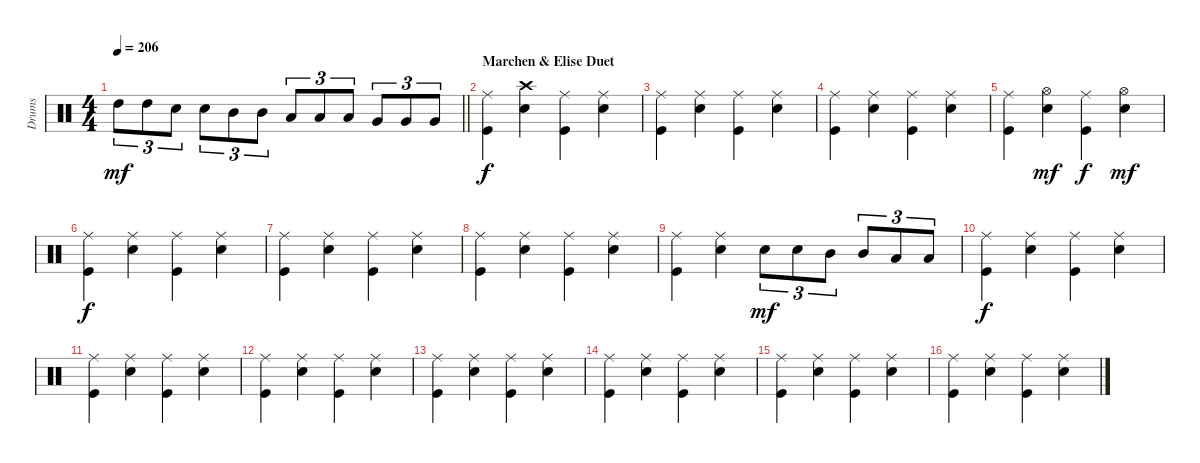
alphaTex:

\track ("Drums" "Drums") {instrument percussion}
\staff {score}
\articulation defaults
\ts (4 4)
\tempo 206
\clef neutral
\barLineRight lightlight
\ks c "High Tom (hit)".8{tu (3 2) dy mf} "High Tom (hit)".8{tu (3 2)} "Electric Snare (hit)".8{tu (3 2)} "Electric Snare (hit)".8{tu (3 2)} "Mid Tom (hit)".8{tu (3 2)} "Mid Tom (hit)".8{tu (3 2)} "Low Tom (hit)".8{tu (3 2)} "Low Tom (hit)".8{tu (3 2)} "Low Tom (hit)".8{tu (3 2)} "Very Low Tom (hit)".8{tu (3 2)} "Very Low Tom (hit)".8{tu (3 2)} "Very Low Tom (hit)".8{tu (3 2)}
|
\section ("" "Marchen & Elise Duet")
("Ride (middle)" "Kick (hit)").4{dy f volume 10} ("Crash high (hit)" "Electric Snare (hit)").4 ("Ride (middle)" "Kick (hit)").4 ("Ride (middle)" "Electric Snare (hit)").4 |
("Ride (middle)" "Kick (hit)").4 ("Ride (middle)" "Electric Snare (hit)").4 ("Ride (middle)" "Kick (hit)").4 ("Ride (middle)" "Electric Snare (hit)").4 |
("Ride (middle)" "Kick (hit)").4 ("Ride (middle)" "Electric Snare (hit)").4 ("Ride (middle)" "Kick (hit)").4 ("Ride (middle)" "Electric Snare (hit)").4 |
("Ride (middle)" "Kick (hit)").4 ("Hi-Hat (open)" "Electric Snare (hit)").4{dy mf} ("Ride (middle)" "Kick (hit)").4{dy f} ("Hi-Hat (open)" "Electric Snare (hit)").4{dy mf} |
("Ride (middle)" "Kick (hit)").4{dy f} ("Ride (middle)" "Electric Snare (hit)").4 ("Ride (middle)" "Kick (hit)").4 ("Ride (middle)" "Electric Snare (hit)").4 |
("Ride (middle)" "Kick (hit)").4 ("Ride (middle)" "Electric Snare (hit)").4 ("Ride (middle)" "Kick (hit)").4 ("Ride (middle)" "Electric Snare (hit)").4 |
("Ride (middle)" "Kick (hit)").4 ("Ride (middle)" "Electric Snare (hit)").4 ("Ride (middle)" "Kick (hit)").4 ("Ride (middle)" "Electric Snare (hit)").4 |
("Ride (middle)" "Kick (hit)").4 ("Ride (middle)" "Electric Snare (hit)").4 "Electric Snare (hit)".8{tu (3 2) dy mf} "Electric Snare (hit)".8{tu (3 2)} "Mid Tom (hit)".8{tu (3 2)} "Mid Tom (hit)".8{tu (3 2)} "Low Tom (hit)".8{tu (3 2)} "Low Tom (hit)".8{tu (3 2)} |
("Ride (middle)" "Kick (hit)").4{dy f} ("Ride (middle)" "Electric Snare (hit)").4 ("Ride (middle)" "Kick (hit)").4 ("Ride (middle)" "Electric Snare (hit)").4 |
("Ride (middle)" "Kick (hit)").4 ("Ride (middle)" "Electric Snare (hit)").4 ("Ride (middle)" "Kick (hit)").4 ("Ride (middle)" "Electric Snare (hit)").4 |
("Ride (middle)" "Kick (hit)").4 ("Ride (middle)" "Electric Snare (hit)").4 ("Ride (middle)" "Kick (hit)").4 ("Ride (middle)" "Electric Snare (hit)").4 |
("Ride (middle)" "Kick (hit)").4 ("Ride (middle)" "Electric Snare (hit)").4 ("Ride (middle)" "Kick (hit)").4 ("Ride (middle)" "Electric Snare (hit)").4 |
("Ride (middle)" "Kick (hit)").4 ("Ride (middle)" "Electric Snare (hit)").4 ("Ride (middle)" "Kick (hit)").4 ("Ride (middle)" "Electric Snare (hit)").4 |
("Ride (middle)" "Kick (hit)").4 ("Ride (middle)" "Electric Snare (hit)").4 ("Ride (middle)" "Kick (hit)").4 ("Ride (middle)" "Electric Snare (hit)").4 |
("Ride (middle)" "Kick (hit)").4 ("Ride (middle)" "Electric Snare (hit)").4 ("Ride (middle)" "Kick (hit)").4 ("Ride (middle)" "Electric Snare (hit)").4
